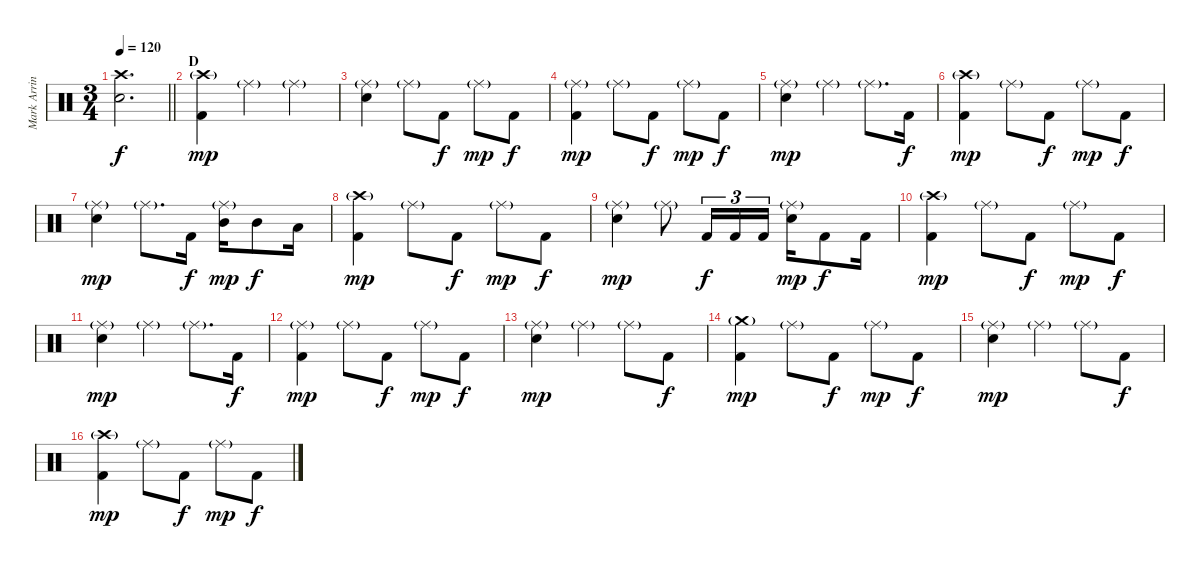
\track ("Mark Arrington Drums" "Mark Arrin") {instrument percussion}
\staff {score}
\articulation defaults
\ts (3 4)
\tempo 120
\clef neutral
\barLineRight lightlight
\ks c
("Crash high (hit)" "Electric Snare (hit)").2{d dy f} |
\section ("" "D")
("Crash high (hit)"{g} "Kick (hit) 2").4{dy mp} "Ride (middle)"{g}.4 "Ride (middle)"{g}.4 |
("Ride (middle)"{g} "Electric Snare (hit)").4 "Ride (middle)"{g}.8 "Kick (hit) 2".8{dy f} "Ride (middle)"{g}.8{dy mp} "Kick (hit) 2".8{dy f} |
("Ride (middle)"{g} "Kick (hit) 2").4{dy mp} "Ride (middle)"{g}.8 "Kick (hit) 2".8{dy f} "Ride (middle)"{g}.8{dy mp} "Kick (hit) 2".8{dy f} |
("Ride (middle)"{g} "Electric Snare (hit)").4{dy mp} "Ride (middle)"{g}.4 "Ride (middle)"{g}.8{d} "Kick (hit) 2".16{dy f} |
("Crash high (hit)"{g} "Kick (hit) 2").4{dy mp} "Ride (middle)"{g}.8 "Kick (hit) 2".8{dy f} "Ride (middle)"{g}.8{dy mp} "Kick (hit) 2".8{dy f} |
("Ride (middle)"{g} "Electric Snare (hit)").4{dy mp} "Ride (middle)"{g}.8{d} "Kick (hit) 2".16{dy f} ("Ride (middle)"{g} "Mid Tom (hit)").16{dy mp} "Mid Tom (hit)".8{dy f} "Low Tom (hit)".16 |
("Crash high (hit)"{g} "Kick (hit) 2").4{dy mp} "Ride (middle)"{g}.8 "Kick (hit) 2".8{dy f} "Ride (middle)"{g}.8{dy mp} "Kick (hit) 2".8{dy f} |
("Ride (middle)"{g} "Electric Snare (hit)").4{dy mp} "Ride (middle)"{g}.8 "Kick (hit) 2".16{tu (3 2) dy f} "Kick (hit) 2".16{tu (3 2)} "Kick (hit) 2".16{tu (3 2)} ("Ride (middle)"{g} "Electric Snare (hit)").16{dy mp} "Kick (hit) 2".8{dy f} "Kick (hit) 2".16 |
("Crash high (hit)"{g} "Kick (hit) 2").4{dy mp} "Ride (middle)"{g}.8 "Kick (hit) 2".8{dy f} "Ride (middle)"{g}.8{dy mp} "Kick (hit) 2".8{dy f} |
("Ride (middle)"{g} "Electric Snare (hit)").4{dy mp} "Ride (middle)"{g}.4 "Ride (middle)"{g}.8{d} "Kick (hit) 2".16{dy f} |
("Ride (middle)"{g} "Kick (hit) 2").4{dy mp} "Ride (middle)"{g}.8 "Kick (hit) 2".8{dy f} "Ride (middle)"{g}.8{dy mp} "Kick (hit) 2".8{dy f} |
("Ride (middle)"{g} "Electric Snare (hit)").4{dy mp} "Ride (middle)"{g}.4 "Ride (middle)"{g}.8 "Kick (hit) 2".8{dy f} |
("Crash medium (hit)"{g} "Kick (hit) 2").4{dy mp} "Ride (middle)"{g}.8 "Kick (hit) 2".8{dy f} "Ride (middle)"{g}.8{dy mp} "Kick (hit) 2".8{dy f} |
("Ride (middle)"{g} "Electric Snare (hit)").4{dy mp} "Ride (middle)"{g}.4 "Ride (middle)"{g}.8 "Kick (hit) 2".8{dy f} |
("Crash high (hit)"{g} "Kick (hit) 2").4{dy mp} "Ride (middle)"{g}.8 "Kick (hit) 2".8{dy f} "Ride (middle)"{g}.8{dy mp} "Kick (hit) 2".8{dy f}
